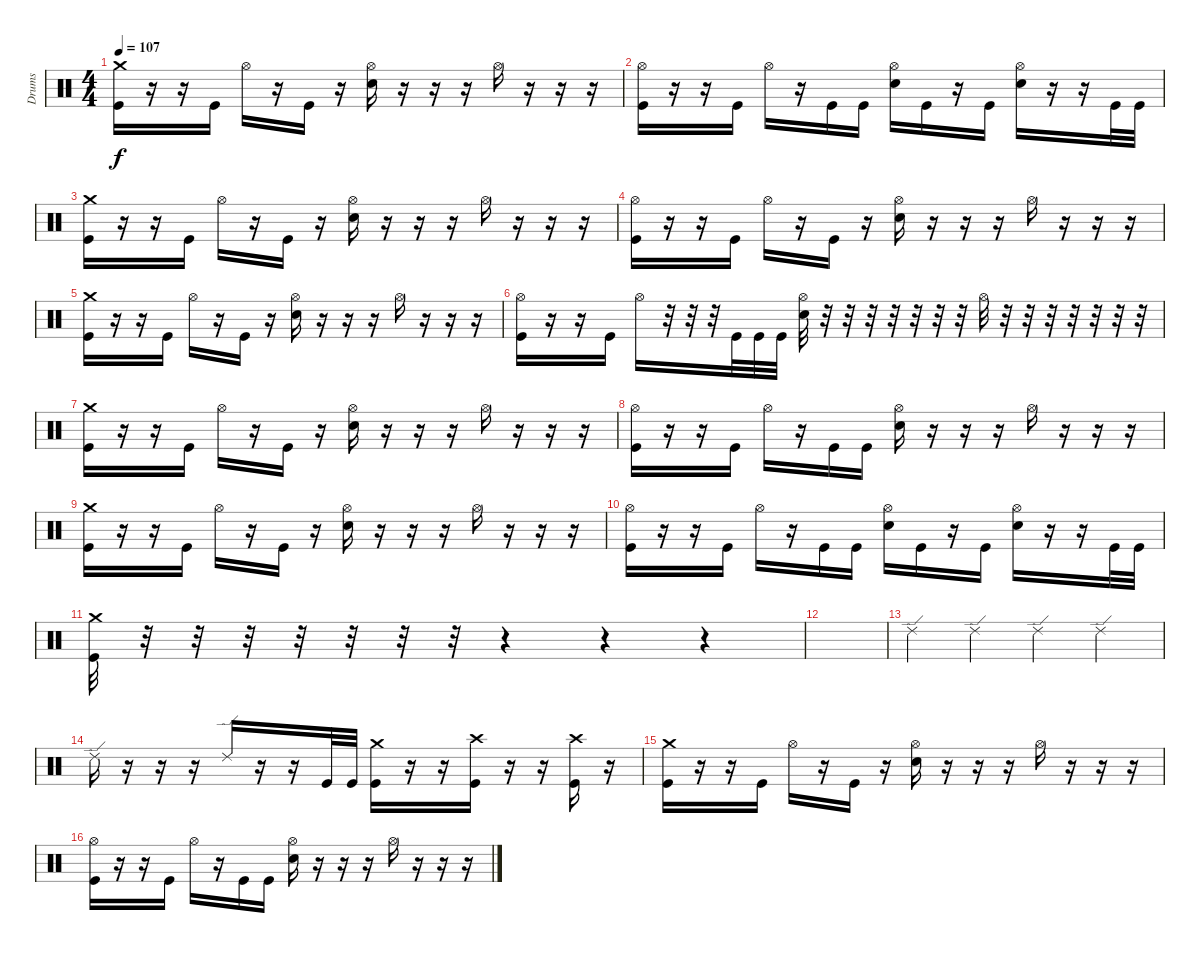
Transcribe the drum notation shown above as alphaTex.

\track ("Drums" "Drums") {instrument percussion}
\staff {score}
\articulation defaults
\ts (4 4)
\tempo 107
\clef neutral
\ks c
("Crash medium (hit)" "Kick (hit)").16{dy f} r.16 r.16 "Kick (hit)".16 "Hi-Hat (open)".16 r.16 "Kick (hit)".16 r.16 ("Hi-Hat (open)" "Electric Snare (hit)").16 r.16 r.16 r.16 "Hi-Hat (open)".16 r.16 r.16 r.16 |
("Hi-Hat (open)" "Kick (hit)").16 r.16 r.16 "Kick (hit)".16 "Hi-Hat (open)".16 r.16 "Kick (hit)".16 "Kick (hit)".16 ("Hi-Hat (open)" "Electric Snare (hit)").16 "Kick (hit)".16 r.16 "Kick (hit)".16 ("Hi-Hat (open)" "Electric Snare (hit)").16 r.16 r.16 "Kick (hit)".32 "Kick (hit)".32 |
("Crash medium (hit)" "Kick (hit)").16 r.16 r.16 "Kick (hit)".16 "Hi-Hat (open)".16 r.16 "Kick (hit)".16 r.16 ("Hi-Hat (open)" "Electric Snare (hit)").16 r.16 r.16 r.16 "Hi-Hat (open)".16 r.16 r.16 r.16 |
("Hi-Hat (open)" "Kick (hit)").16 r.16 r.16 "Kick (hit)".16 "Hi-Hat (open)".16 r.16 "Kick (hit)".16 r.16 ("Hi-Hat (open)" "Electric Snare (hit)").16 r.16 r.16 r.16 "Hi-Hat (open)".16 r.16 r.16 r.16 |
("Crash medium (hit)" "Kick (hit)").16 r.16 r.16 "Kick (hit)".16 "Hi-Hat (open)".16 r.16 "Kick (hit)".16 r.16 ("Hi-Hat (open)" "Electric Snare (hit)").16 r.16 r.16 r.16 "Hi-Hat (open)".16 r.16 r.16 r.16 |
("Hi-Hat (open)" "Kick (hit)").16 r.16 r.16 "Kick (hit)".16 "Hi-Hat (open)".16 r.32 r.32 r.32 "Kick (hit)".32 "Kick (hit)".32 "Kick (hit)".32 ("Hi-Hat (open)" "Electric Snare (hit)").32 r.32 r.32 r.32 r.32 r.32 r.32 r.32 "Hi-Hat (open)".32 r.32 r.32 r.32 r.32 r.32 r.32 r.32 |
("Crash medium (hit)" "Kick (hit)").16 r.16 r.16 "Kick (hit)".16 "Hi-Hat (open)".16 r.16 "Kick (hit)".16 r.16 ("Hi-Hat (open)" "Electric Snare (hit)").16 r.16 r.16 r.16 "Hi-Hat (open)".16 r.16 r.16 r.16 |
("Hi-Hat (open)" "Kick (hit)").16 r.16 r.16 "Kick (hit)".16 "Hi-Hat (open)".16 r.16 "Kick (hit)".16 "Kick (hit)".16 ("Hi-Hat (open)" "Electric Snare (hit)").16 r.16 r.16 r.16 "Hi-Hat (open)".16 r.16 r.16 r.16 |
("Crash medium (hit)" "Kick (hit)").16 r.16 r.16 "Kick (hit)".16 "Hi-Hat (open)".16 r.16 "Kick (hit)".16 r.16 ("Hi-Hat (open)" "Electric Snare (hit)").16 r.16 r.16 r.16 "Hi-Hat (open)".16 r.16 r.16 r.16 |
("Hi-Hat (open)" "Kick (hit)").16 r.16 r.16 "Kick (hit)".16 "Hi-Hat (open)".16 r.16 "Kick (hit)".16 "Kick (hit)".16 ("Hi-Hat (open)" "Electric Snare (hit)").16 "Kick (hit)".16 r.16 "Kick (hit)".16 ("Hi-Hat (open)" "Electric Snare (hit)").16 r.16 r.16 "Kick (hit)".32 "Kick (hit)".32 |
("Crash medium (hit)" "Kick (hit)").32 r.32 r.32 r.32 r.32 r.32 r.32 r.32 r.4 r.4 r.4 |
|
"Ride (edge) 2".4 "Ride (edge) 2".4 "Ride (edge) 2".4 "Ride (edge) 2".4 |
"Ride (edge) 2".16 r.16 r.16 r.16 "Ride (edge) 2".16 r.16 r.16 "Kick (hit)".32 "Kick (hit)".32 ("Crash medium (hit)" "Kick (hit)").16 r.16 r.16 ("Crash high (hit)" "Kick (hit)").16 r.16 r.16 ("Crash high (hit)" "Kick (hit)").16 r.16 |
("Crash medium (hit)" "Kick (hit)").16 r.16 r.16 "Kick (hit)".16 "Hi-Hat (open)".16 r.16 "Kick (hit)".16 r.16 ("Hi-Hat (open)" "Electric Snare (hit)").16 r.16 r.16 r.16 "Hi-Hat (open)".16 r.16 r.16 r.16 |
("Hi-Hat (open)" "Kick (hit)").16 r.16 r.16 "Kick (hit)".16 "Hi-Hat (open)".16 r.16 "Kick (hit)".16 "Kick (hit)".16 ("Hi-Hat (open)" "Electric Snare (hit)").16 r.16 r.16 r.16 "Hi-Hat (open)".16 r.16 r.16 r.16
